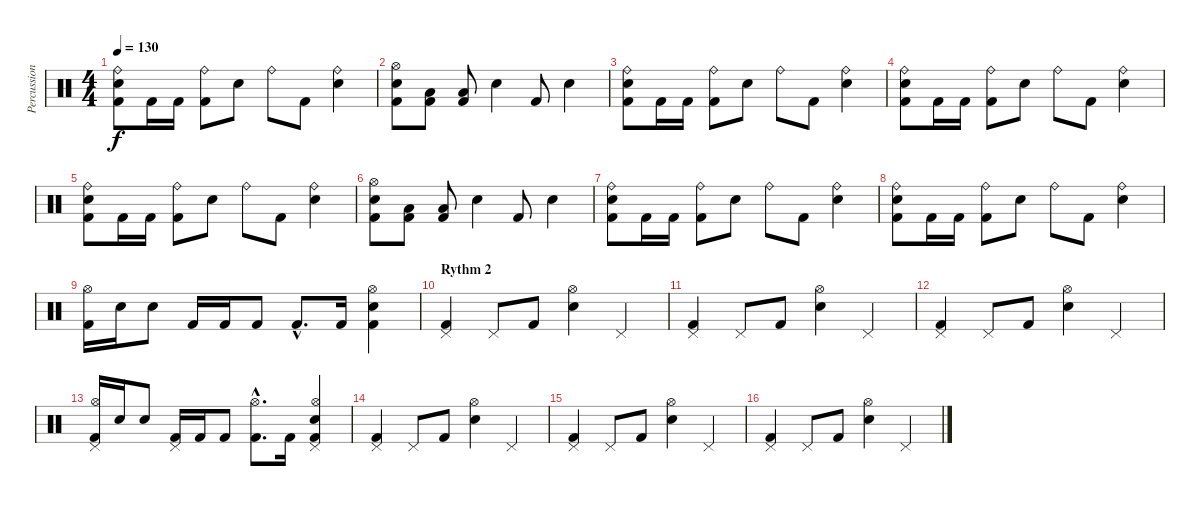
\track ("Percussion" "Percussion") {instrument percussion}
\staff {score}
\articulation defaults
\ts (4 4)
\tempo 130
\clef neutral
\ks c
("Ride (bell)" "Electric Snare (hit)" "Kick (hit) 2").8{dy f} "Kick (hit) 2".16 "Kick (hit) 2".16 ("Ride (bell)" "Kick (hit) 2").8 "Electric Snare (hit)".8 "Ride (bell)".8 "Kick (hit) 2".8 ("Ride (bell)" "Electric Snare (hit)").4 |
("Hi-Hat (open)" "Electric Snare (hit)" "Kick (hit) 2").8 ("Low Floor Tom (hit)" "Kick (hit) 2").8 ("Low Floor Tom (hit)" "Kick (hit) 2").8 "Electric Snare (hit)".4 "Kick (hit) 2".8 "Electric Snare (hit)".4 |
("Ride (bell)" "Electric Snare (hit)" "Kick (hit) 2").8 "Kick (hit) 2".16 "Kick (hit) 2".16 ("Ride (bell)" "Kick (hit) 2").8 "Electric Snare (hit)".8 "Ride (bell)".8 "Kick (hit) 2".8 ("Ride (bell)" "Electric Snare (hit)").4 |
("Ride (bell)" "Electric Snare (hit)" "Kick (hit) 2").8 "Kick (hit) 2".16 "Kick (hit) 2".16 ("Ride (bell)" "Kick (hit) 2").8 "Electric Snare (hit)".8 "Ride (bell)".8 "Kick (hit) 2".8 ("Ride (bell)" "Electric Snare (hit)").4 |
("Ride (bell)" "Electric Snare (hit)" "Kick (hit) 2").8 "Kick (hit) 2".16 "Kick (hit) 2".16 ("Ride (bell)" "Kick (hit) 2").8 "Electric Snare (hit)".8 "Ride (bell)".8 "Kick (hit) 2".8 ("Ride (bell)" "Electric Snare (hit)").4 |
("Hi-Hat (open)" "Electric Snare (hit)" "Kick (hit) 2").8 ("Low Floor Tom (hit)" "Kick (hit) 2").8 ("Low Floor Tom (hit)" "Kick (hit) 2").8 "Electric Snare (hit)".4 "Kick (hit) 2".8 "Electric Snare (hit)".4 |
("Ride (bell)" "Electric Snare (hit)" "Kick (hit) 2").8 "Kick (hit) 2".16 "Kick (hit) 2".16 ("Ride (bell)" "Kick (hit) 2").8 "Electric Snare (hit)".8 "Ride (bell)".8 "Kick (hit) 2".8 ("Ride (bell)" "Electric Snare (hit)").4 |
("Ride (bell)" "Electric Snare (hit)" "Kick (hit) 2").8 "Kick (hit) 2".16 "Kick (hit) 2".16 ("Ride (bell)" "Kick (hit) 2").8 "Electric Snare (hit)".8 "Ride (bell)".8 "Kick (hit) 2".8 ("Ride (bell)" "Electric Snare (hit)").4 |
("Hi-Hat (open)" "Kick (hit) 2").16 "Electric Snare (hit)".16 "Electric Snare (hit)".8 "Kick (hit) 2".16 "Kick (hit) 2".16 "Kick (hit) 2".8 "Kick (hit) 2"{hac}.8{d} "Kick (hit) 2".16 ("Hi-Hat (open)" "Kick (hit) 2" "Electric Snare (hit)").4 |
\section ("" "Rythm 2")
("Pedal Hi-Hat (hit)" "Kick (hit) 2").4 "Pedal Hi-Hat (hit)".8 "Kick (hit) 2".8 ("Hi-Hat (open)" "Electric Snare (hit)").4 "Pedal Hi-Hat (hit)".4 |
("Pedal Hi-Hat (hit)" "Kick (hit) 2").4 "Pedal Hi-Hat (hit)".8 "Kick (hit) 2".8 ("Hi-Hat (open)" "Electric Snare (hit)").4 "Pedal Hi-Hat (hit)".4 |
("Pedal Hi-Hat (hit)" "Kick (hit) 2").4 "Pedal Hi-Hat (hit)".8 "Kick (hit) 2".8 ("Hi-Hat (open)" "Electric Snare (hit)").4 "Pedal Hi-Hat (hit)".4 |
("Pedal Hi-Hat (hit)" "Hi-Hat (open)" "Kick (hit) 2").16 "Electric Snare (hit)".16 "Electric Snare (hit)".8 ("Pedal Hi-Hat (hit)" "Kick (hit) 2").16 "Kick (hit) 2".16 "Kick (hit) 2".8 ("Hi-Hat (open)"{hac} "Kick (hit) 2"{hac}).8{d} "Kick (hit) 2".16 ("Pedal Hi-Hat (hit)" "Hi-Hat (open)" "Kick (hit) 2" "Electric Snare (hit)").4 |
("Pedal Hi-Hat (hit)" "Kick (hit) 2").4 "Pedal Hi-Hat (hit)".8 "Kick (hit) 2".8 ("Hi-Hat (open)" "Electric Snare (hit)").4 "Pedal Hi-Hat (hit)".4 |
("Pedal Hi-Hat (hit)" "Kick (hit) 2").4 "Pedal Hi-Hat (hit)".8 "Kick (hit) 2".8 ("Hi-Hat (open)" "Electric Snare (hit)").4 "Pedal Hi-Hat (hit)".4 |
("Pedal Hi-Hat (hit)" "Kick (hit) 2").4 "Pedal Hi-Hat (hit)".8 "Kick (hit) 2".8 ("Hi-Hat (open)" "Electric Snare (hit)").4 "Pedal Hi-Hat (hit)".4
